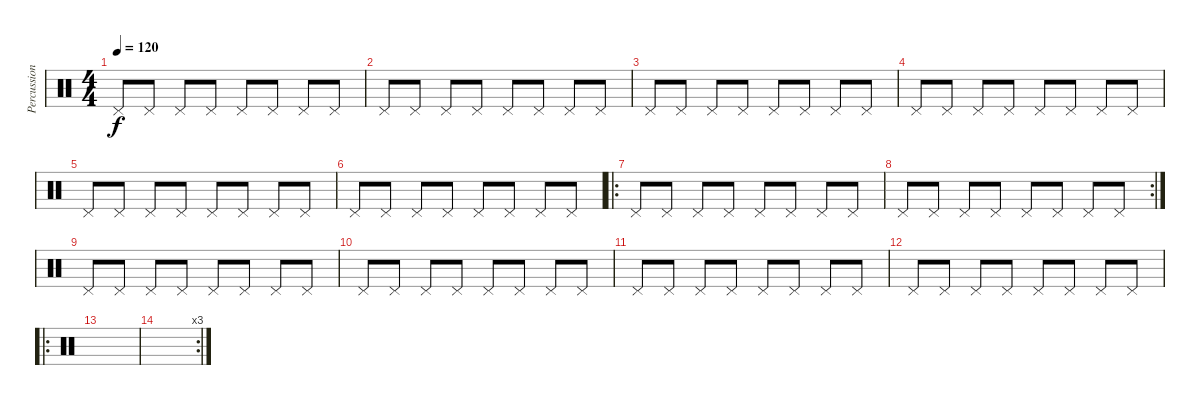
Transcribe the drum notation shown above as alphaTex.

\track ("Percussions" "Percussion") {instrument percussion}
\staff {score}
\articulation defaults
\ts (4 4)
\tempo 120
\clef neutral
\ks c "Pedal Hi-Hat (hit)".8{dy f} "Pedal Hi-Hat (hit)".8 "Pedal Hi-Hat (hit)".8 "Pedal Hi-Hat (hit)".8 "Pedal Hi-Hat (hit)".8 "Pedal Hi-Hat (hit)".8 "Pedal Hi-Hat (hit)".8 "Pedal Hi-Hat (hit)".8
|
"Pedal Hi-Hat (hit)".8 "Pedal Hi-Hat (hit)".8 "Pedal Hi-Hat (hit)".8 "Pedal Hi-Hat (hit)".8 "Pedal Hi-Hat (hit)".8 "Pedal Hi-Hat (hit)".8 "Pedal Hi-Hat (hit)".8 "Pedal Hi-Hat (hit)".8 |
"Pedal Hi-Hat (hit)".8 "Pedal Hi-Hat (hit)".8 "Pedal Hi-Hat (hit)".8 "Pedal Hi-Hat (hit)".8 "Pedal Hi-Hat (hit)".8 "Pedal Hi-Hat (hit)".8 "Pedal Hi-Hat (hit)".8 "Pedal Hi-Hat (hit)".8 |
"Pedal Hi-Hat (hit)".8 "Pedal Hi-Hat (hit)".8 "Pedal Hi-Hat (hit)".8 "Pedal Hi-Hat (hit)".8 "Pedal Hi-Hat (hit)".8 "Pedal Hi-Hat (hit)".8 "Pedal Hi-Hat (hit)".8 "Pedal Hi-Hat (hit)".8 |
"Pedal Hi-Hat (hit)".8 "Pedal Hi-Hat (hit)".8 "Pedal Hi-Hat (hit)".8 "Pedal Hi-Hat (hit)".8 "Pedal Hi-Hat (hit)".8 "Pedal Hi-Hat (hit)".8 "Pedal Hi-Hat (hit)".8 "Pedal Hi-Hat (hit)".8 |
"Pedal Hi-Hat (hit)".8 "Pedal Hi-Hat (hit)".8 "Pedal Hi-Hat (hit)".8 "Pedal Hi-Hat (hit)".8 "Pedal Hi-Hat (hit)".8 "Pedal Hi-Hat (hit)".8 "Pedal Hi-Hat (hit)".8 "Pedal Hi-Hat (hit)".8 |
\ro "Pedal Hi-Hat (hit)".8 "Pedal Hi-Hat (hit)".8 "Pedal Hi-Hat (hit)".8 "Pedal Hi-Hat (hit)".8 "Pedal Hi-Hat (hit)".8 "Pedal Hi-Hat (hit)".8 "Pedal Hi-Hat (hit)".8 "Pedal Hi-Hat (hit)".8
|
\rc 2 "Pedal Hi-Hat (hit)".8 "Pedal Hi-Hat (hit)".8 "Pedal Hi-Hat (hit)".8 "Pedal Hi-Hat (hit)".8 "Pedal Hi-Hat (hit)".8 "Pedal Hi-Hat (hit)".8 "Pedal Hi-Hat (hit)".8 "Pedal Hi-Hat (hit)".8
|
"Pedal Hi-Hat (hit)".8 "Pedal Hi-Hat (hit)".8 "Pedal Hi-Hat (hit)".8 "Pedal Hi-Hat (hit)".8 "Pedal Hi-Hat (hit)".8 "Pedal Hi-Hat (hit)".8 "Pedal Hi-Hat (hit)".8 "Pedal Hi-Hat (hit)".8 |
"Pedal Hi-Hat (hit)".8 "Pedal Hi-Hat (hit)".8 "Pedal Hi-Hat (hit)".8 "Pedal Hi-Hat (hit)".8 "Pedal Hi-Hat (hit)".8 "Pedal Hi-Hat (hit)".8 "Pedal Hi-Hat (hit)".8 "Pedal Hi-Hat (hit)".8 |
"Pedal Hi-Hat (hit)".8 "Pedal Hi-Hat (hit)".8 "Pedal Hi-Hat (hit)".8 "Pedal Hi-Hat (hit)".8 "Pedal Hi-Hat (hit)".8 "Pedal Hi-Hat (hit)".8 "Pedal Hi-Hat (hit)".8 "Pedal Hi-Hat (hit)".8 |
"Pedal Hi-Hat (hit)".8 "Pedal Hi-Hat (hit)".8 "Pedal Hi-Hat (hit)".8 "Pedal Hi-Hat (hit)".8 "Pedal Hi-Hat (hit)".8 "Pedal Hi-Hat (hit)".8 "Pedal Hi-Hat (hit)".8 "Pedal Hi-Hat (hit)".8 |
\ro
|
\rc 3
